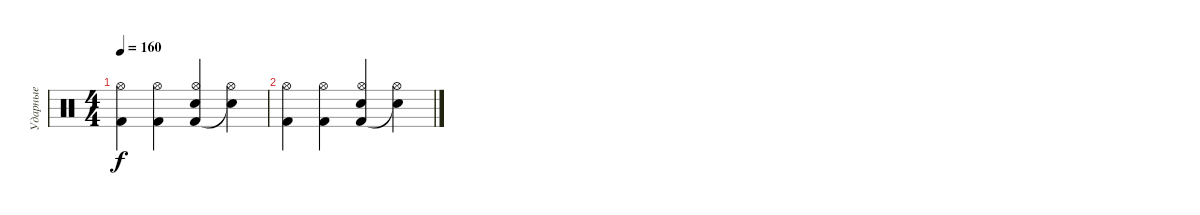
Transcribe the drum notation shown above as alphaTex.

\track ("Ударные" "Ударные") {instrument percussion}
\staff {score}
\articulation defaults
\ts (4 4)
\tempo 160
\clef neutral
\ks c
("Kick (hit) 2" "Hi-Hat (open)").4{dy f} ("Kick (hit) 2" "Hi-Hat (open)").4 ("Kick (hit) 2" "Electric Snare (hit)" "Hi-Hat (open)").4 ("Snare (hit)"{t} "Hi-Hat (open)").4 |
("Kick (hit) 2" "Hi-Hat (open)").4 ("Kick (hit) 2" "Hi-Hat (open)").4 ("Kick (hit) 2" "Electric Snare (hit)" "Hi-Hat (open)").4 ("Snare (hit)"{t} "Hi-Hat (open)").4
